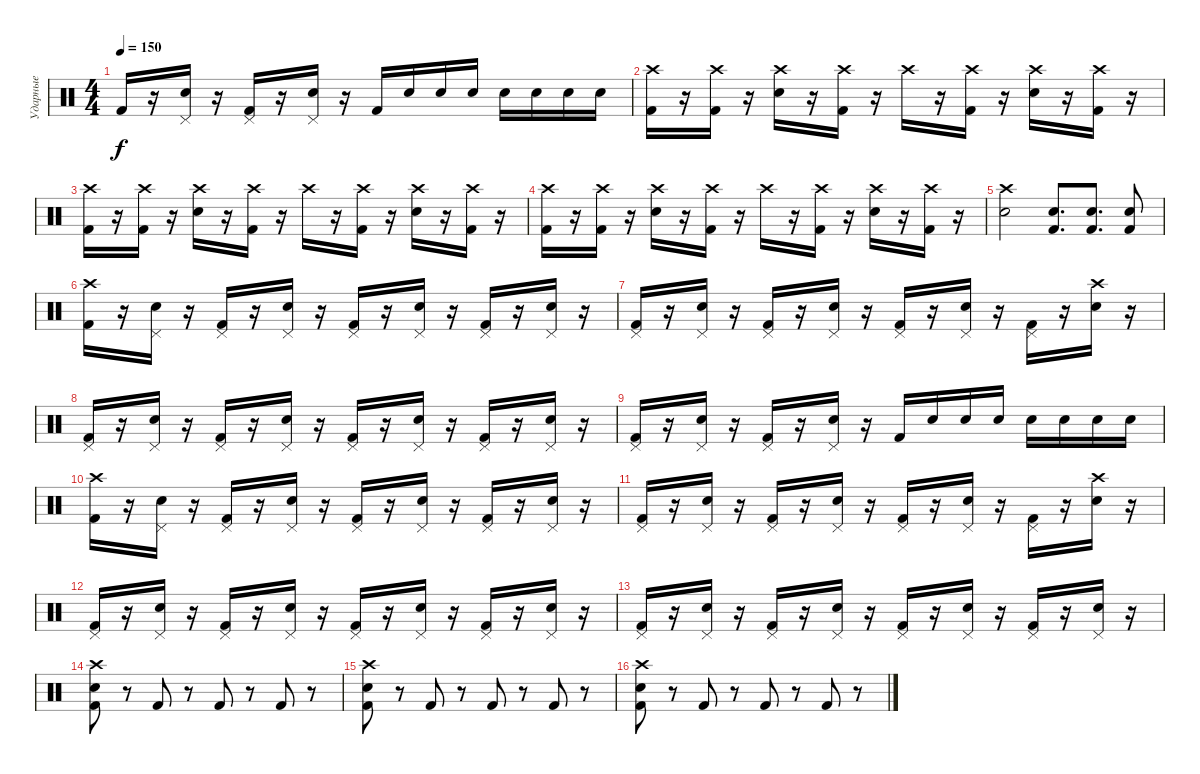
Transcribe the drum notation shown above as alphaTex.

\track ("Ударные" "Ударные") {instrument percussion}
\staff {score}
\articulation defaults
\ts (4 4)
\tempo 150
\clef neutral
\ks c "Kick (hit) 2".16{dy f}
r.16 ("Electric Snare (hit)" "Pedal Hi-Hat (hit)").16 r.16 ("Kick (hit) 2" "Pedal Hi-Hat (hit)").16 r.16 ("Electric Snare (hit)" "Pedal Hi-Hat (hit)").16 r.16 "Kick (hit) 2".16 "Electric Snare (hit)".16 "Electric Snare (hit)".16 "Electric Snare (hit)".16 "Electric Snare (hit)".16 "Electric Snare (hit)".16 "Electric Snare (hit)".16 "Electric Snare (hit)".16 |
("Kick (hit) 2" "Crash high (hit)").16 r.16 ("Kick (hit) 2" "Crash high (hit)").16 r.16 ("Electric Snare (hit)" "Crash high (hit)").16 r.16 ("Kick (hit) 2" "Crash high (hit)").16 r.16 "Crash high (hit)".16 r.16 ("Kick (hit) 2" "Crash high (hit)").16 r.16 ("Electric Snare (hit)" "Crash high (hit)").16 r.16 ("Kick (hit) 2" "Crash high (hit)").16 r.16 |
("Kick (hit) 2" "Crash high (hit)").16 r.16 ("Kick (hit) 2" "Crash high (hit)").16 r.16 ("Electric Snare (hit)" "Crash high (hit)").16 r.16 ("Kick (hit) 2" "Crash high (hit)").16 r.16 "Crash high (hit)".16 r.16 ("Kick (hit) 2" "Crash high (hit)").16 r.16 ("Electric Snare (hit)" "Crash high (hit)").16 r.16 ("Kick (hit) 2" "Crash high (hit)").16 r.16 |
("Kick (hit) 2" "Crash high (hit)").16 r.16 ("Kick (hit) 2" "Crash high (hit)").16 r.16 ("Electric Snare (hit)" "Crash high (hit)").16 r.16 ("Kick (hit) 2" "Crash high (hit)").16 r.16 "Crash high (hit)".16 r.16 ("Kick (hit) 2" "Crash high (hit)").16 r.16 ("Electric Snare (hit)" "Crash high (hit)").16 r.16 ("Kick (hit) 2" "Crash high (hit)").16 r.16 |
("Electric Snare (hit)" "Crash high (hit)").2 ("Electric Snare (hit)" "Kick (hit) 2").8{d} ("Electric Snare (hit)" "Kick (hit) 2").8{d} ("Electric Snare (hit)" "Kick (hit) 2").8 |
("Kick (hit) 2" "Crash high (hit)").16 r.16 ("Electric Snare (hit)" "Pedal Hi-Hat (hit)").16 r.16 ("Kick (hit) 2" "Pedal Hi-Hat (hit)").16 r.16 ("Electric Snare (hit)" "Pedal Hi-Hat (hit)").16 r.16 ("Kick (hit) 2" "Pedal Hi-Hat (hit)").16 r.16 ("Electric Snare (hit)" "Pedal Hi-Hat (hit)").16 r.16 ("Kick (hit) 2" "Pedal Hi-Hat (hit)").16 r.16 ("Electric Snare (hit)" "Pedal Hi-Hat (hit)").16 r.16 |
("Kick (hit) 2" "Pedal Hi-Hat (hit)").16 r.16 ("Electric Snare (hit)" "Pedal Hi-Hat (hit)").16 r.16 ("Kick (hit) 2" "Pedal Hi-Hat (hit)").16 r.16 ("Electric Snare (hit)" "Pedal Hi-Hat (hit)").16 r.16 ("Kick (hit) 2" "Pedal Hi-Hat (hit)").16 r.16 ("Electric Snare (hit)" "Pedal Hi-Hat (hit)").16 r.16 ("Kick (hit) 2" "Pedal Hi-Hat (hit)").16 r.16 ("Electric Snare (hit)" "Crash high (hit)").16 r.16 |
("Kick (hit) 2" "Pedal Hi-Hat (hit)").16 r.16 ("Electric Snare (hit)" "Pedal Hi-Hat (hit)").16 r.16 ("Kick (hit) 2" "Pedal Hi-Hat (hit)").16 r.16 ("Electric Snare (hit)" "Pedal Hi-Hat (hit)").16 r.16 ("Kick (hit) 2" "Pedal Hi-Hat (hit)").16 r.16 ("Electric Snare (hit)" "Pedal Hi-Hat (hit)").16 r.16 ("Kick (hit) 2" "Pedal Hi-Hat (hit)").16 r.16 ("Electric Snare (hit)" "Pedal Hi-Hat (hit)").16 r.16 |
("Kick (hit) 2" "Pedal Hi-Hat (hit)").16 r.16 ("Electric Snare (hit)" "Pedal Hi-Hat (hit)").16 r.16 ("Kick (hit) 2" "Pedal Hi-Hat (hit)").16 r.16 ("Electric Snare (hit)" "Pedal Hi-Hat (hit)").16 r.16 "Kick (hit) 2".16 "Electric Snare (hit)".16 "Electric Snare (hit)".16 "Electric Snare (hit)".16 "Electric Snare (hit)".16 "Electric Snare (hit)".16 "Electric Snare (hit)".16 "Electric Snare (hit)".16 |
("Kick (hit) 2" "Crash high (hit)").16 r.16 ("Electric Snare (hit)" "Pedal Hi-Hat (hit)").16 r.16 ("Kick (hit) 2" "Pedal Hi-Hat (hit)").16 r.16 ("Electric Snare (hit)" "Pedal Hi-Hat (hit)").16 r.16 ("Kick (hit) 2" "Pedal Hi-Hat (hit)").16 r.16 ("Electric Snare (hit)" "Pedal Hi-Hat (hit)").16 r.16 ("Kick (hit) 2" "Pedal Hi-Hat (hit)").16 r.16 ("Electric Snare (hit)" "Pedal Hi-Hat (hit)").16 r.16 |
("Kick (hit) 2" "Pedal Hi-Hat (hit)").16 r.16 ("Electric Snare (hit)" "Pedal Hi-Hat (hit)").16 r.16 ("Kick (hit) 2" "Pedal Hi-Hat (hit)").16 r.16 ("Electric Snare (hit)" "Pedal Hi-Hat (hit)").16 r.16 ("Kick (hit) 2" "Pedal Hi-Hat (hit)").16 r.16 ("Electric Snare (hit)" "Pedal Hi-Hat (hit)").16 r.16 ("Kick (hit) 2" "Pedal Hi-Hat (hit)").16 r.16 ("Electric Snare (hit)" "Crash high (hit)").16 r.16 |
("Kick (hit) 2" "Pedal Hi-Hat (hit)").16 r.16 ("Electric Snare (hit)" "Pedal Hi-Hat (hit)").16 r.16 ("Kick (hit) 2" "Pedal Hi-Hat (hit)").16 r.16 ("Electric Snare (hit)" "Pedal Hi-Hat (hit)").16 r.16 ("Kick (hit) 2" "Pedal Hi-Hat (hit)").16 r.16 ("Electric Snare (hit)" "Pedal Hi-Hat (hit)").16 r.16 ("Kick (hit) 2" "Pedal Hi-Hat (hit)").16 r.16 ("Electric Snare (hit)" "Pedal Hi-Hat (hit)").16 r.16 |
("Kick (hit) 2" "Pedal Hi-Hat (hit)").16 r.16 ("Electric Snare (hit)" "Pedal Hi-Hat (hit)").16 r.16 ("Kick (hit) 2" "Pedal Hi-Hat (hit)").16 r.16 ("Electric Snare (hit)" "Pedal Hi-Hat (hit)").16 r.16 ("Kick (hit) 2" "Pedal Hi-Hat (hit)").16 r.16 ("Electric Snare (hit)" "Pedal Hi-Hat (hit)").16 r.16 ("Kick (hit) 2" "Pedal Hi-Hat (hit)").16 r.16 ("Electric Snare (hit)" "Pedal Hi-Hat (hit)").16 r.16 |
("Electric Snare (hit)" "Crash high (hit)" "Kick (hit) 2").8 r.8 "Kick (hit) 2".8 r.8 "Kick (hit) 2".8 r.8 "Kick (hit) 2".8 r.8 |
("Electric Snare (hit)" "Crash high (hit)" "Kick (hit) 2").8 r.8 "Kick (hit) 2".8 r.8 "Kick (hit) 2".8 r.8 "Kick (hit) 2".8 r.8 |
("Electric Snare (hit)" "Crash high (hit)" "Kick (hit) 2").8 r.8 "Kick (hit) 2".8 r.8 "Kick (hit) 2".8 r.8 "Kick (hit) 2".8 r.8
